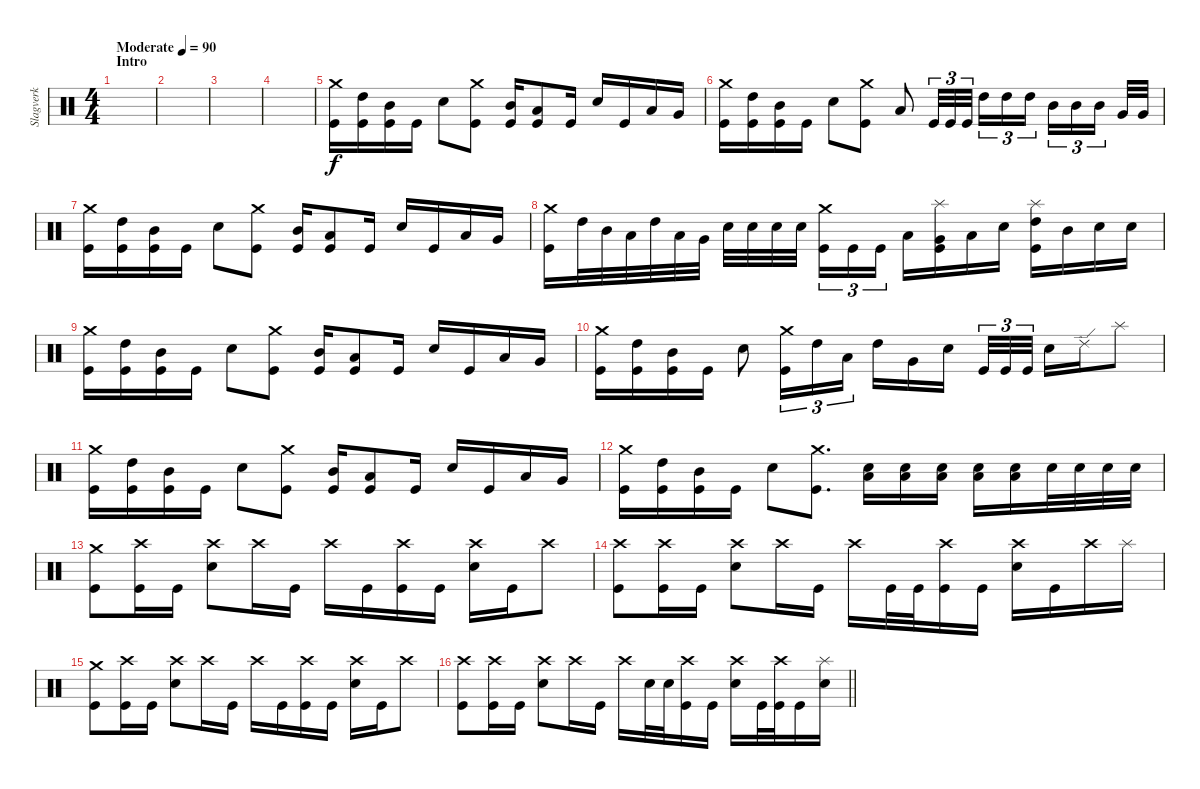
\track ("Slagverk" "Slagverk") {instrument percussion}
\staff {score}
\articulation defaults
\ts (4 4)
\section ("" "Intro")
\tempo (90 "Moderate")
\clef neutral
\ks c
|
|
|
|
("Crash medium (hit)" "Kick (hit)").16 ("High Tom (hit)" "Kick (hit)").16 ("Mid Tom (hit)" "Kick (hit)").16 "Kick (hit)".16 "Electric Snare (hit)".8 ("Crash medium (hit)" "Kick (hit)").8 ("Mid Tom (hit)" "Kick (hit)").16 ("Low Tom (hit)" "Kick (hit)").8 "Kick (hit)".16 "Electric Snare (hit)".16 "Kick (hit)".16 "Low Tom (hit)".16 "Very Low Tom (hit)".16 |
("Crash medium (hit)" "Kick (hit)").16 ("High Tom (hit)" "Kick (hit)").16 ("Mid Tom (hit)" "Kick (hit)").16 "Kick (hit)".16 "Electric Snare (hit)".8 ("Crash medium (hit)" "Kick (hit)").8 "Low Tom (hit)".8 "Kick (hit)".32{tu (3 2)} "Kick (hit)".32{tu (3 2)} "Kick (hit)".32{tu (3 2) beam splitsecondary} "High Tom (hit)".16{tu (3 2)} "High Tom (hit)".16{tu (3 2)} "High Tom (hit)".16{tu (3 2) beam splitsecondary} "Mid Tom (hit)".16{tu (3 2)} "Mid Tom (hit)".16{tu (3 2)} "Mid Tom (hit)".16{tu (3 2) beam splitsecondary} "Very Low Tom (hit)".32 "Very Low Tom (hit)".32 |
("Crash medium (hit)" "Kick (hit)").16 ("High Tom (hit)" "Kick (hit)").16 ("Mid Tom (hit)" "Kick (hit)").16 "Kick (hit)".16 "Electric Snare (hit)".8 ("Crash medium (hit)" "Kick (hit)").8 ("Mid Tom (hit)" "Kick (hit)").16 ("Low Tom (hit)" "Kick (hit)").8 "Kick (hit)".16 "Electric Snare (hit)".16 "Kick (hit)".16 "Low Tom (hit)".16 "Very Low Tom (hit)".16 |
("Crash medium (hit)" "Kick (hit)").16 "High Tom (hit)".32 "Mid Tom (hit)".32 "Low Tom (hit)".32 "High Tom (hit)".32 "Low Floor Tom (hit)".32 "Very Low Tom (hit)".32 "Electric Snare (hit)".32 "Electric Snare (hit)".32 "Electric Snare (hit)".32 "Electric Snare (hit)".32{beam splitsecondary} ("Crash medium (hit)" "Kick (hit)").16{tu (3 2)} "Kick (hit)".16{tu (3 2)} "Kick (hit)".16{tu (3 2)} "Low Tom (hit)".16 ("Splash (hit)" "Very Low Tom (hit)" "Kick (hit)").16 "Low Floor Tom (hit)".16 "Electric Snare (hit)".16 ("Splash (hit)" "High Tom (hit)" "Kick (hit)").16 "Mid Tom (hit)".16 "Electric Snare (hit)".16 "Electric Snare (hit)".16 |
("Crash medium (hit)" "Kick (hit)").16 ("High Tom (hit)" "Kick (hit)").16 ("Mid Tom (hit)" "Kick (hit)").16 "Kick (hit)".16 "Electric Snare (hit)".8 ("Crash medium (hit)" "Kick (hit)").8 ("Mid Tom (hit)" "Kick (hit)").16 ("Low Tom (hit)" "Kick (hit)").8 "Kick (hit)".16 "Electric Snare (hit)".16 "Kick (hit)".16 "Low Tom (hit)".16 "Very Low Tom (hit)".16 |
("Crash medium (hit)" "Kick (hit)").16 ("High Tom (hit)" "Kick (hit)").16 ("Mid Tom (hit)" "Kick (hit)").16 "Kick (hit)".16 "Electric Snare (hit)".8 ("Crash medium (hit)" "Kick (hit)").16{tu (3 2)} "High Tom (hit)".16{tu (3 2)} "Low Tom (hit)".16{tu (3 2)} "High Tom (hit)".16 "Very Low Tom (hit)".16 "Electric Snare (hit)".16{beam splitsecondary} "Kick (hit)".32{tu (3 2)} "Kick (hit)".32{tu (3 2)} "Kick (hit)".32{tu (3 2)} "Electric Snare (hit)".16 "Ride (edge) 2".16 "Splash (hit)".8 |
("Crash medium (hit)" "Kick (hit)").16 ("High Tom (hit)" "Kick (hit)").16 ("Mid Tom (hit)" "Kick (hit)").16 "Kick (hit)".16 "Electric Snare (hit)".8 ("Crash medium (hit)" "Kick (hit)").8 ("Mid Tom (hit)" "Kick (hit)").16 ("Low Tom (hit)" "Kick (hit)").8 "Kick (hit)".16 "Electric Snare (hit)".16 "Kick (hit)".16 "Low Tom (hit)".16 "Very Low Tom (hit)".16 |
("Crash medium (hit)" "Kick (hit)").16 ("High Tom (hit)" "Kick (hit)").16 ("Mid Tom (hit)" "Kick (hit)").16 "Kick (hit)".16 "Electric Snare (hit)".8 ("Crash medium (hit)" "Kick (hit)").8{d} ("Electric Snare (hit)" "Low Floor Tom (hit)").16 ("Electric Snare (hit)" "Low Floor Tom (hit)").16 ("Electric Snare (hit)" "Low Floor Tom (hit)").16 ("Electric Snare (hit)" "Low Floor Tom (hit)").16 ("Electric Snare (hit)" "Low Floor Tom (hit)").16 "Electric Snare (hit)".32 "Electric Snare (hit)".32 "Electric Snare (hit)".32 "Electric Snare (hit)".32 |
("Crash medium (hit)" "Kick (hit)").8 ("Crash high (hit)" "Kick (hit)").16 "Kick (hit)".16 ("Crash high (hit)" "Electric Snare (hit)").8 "Crash high (hit)".16 "Kick (hit)".16 "Crash high (hit)".16 "Kick (hit)".16 ("Crash high (hit)" "Kick (hit)").16 "Kick (hit)".16 ("Crash high (hit)" "Electric Snare (hit)").16 "Kick (hit)".16 "Crash high (hit)".8 |
("Crash high (hit)" "Kick (hit)").8 ("Crash high (hit)" "Kick (hit)").16 "Kick (hit)".16 ("Crash high (hit)" "Electric Snare (hit)").8 "Crash high (hit)".16 "Kick (hit)".16 "Crash high (hit)".16 "Kick (hit)".32 "Kick (hit)".32 ("Crash high (hit)" "Kick (hit)").16 "Kick (hit)".16 ("Crash high (hit)" "Electric Snare (hit)").16 "Kick (hit)".16 "Crash high (hit)".16 "Splash (hit)".16 |
("Crash medium (hit)" "Kick (hit)").8 ("Crash high (hit)" "Kick (hit)").16 "Kick (hit)".16 ("Crash high (hit)" "Electric Snare (hit)").8 "Crash high (hit)".16 "Kick (hit)".16 "Crash high (hit)".16 "Kick (hit)".16 ("Crash high (hit)" "Kick (hit)").16 "Kick (hit)".16 ("Crash high (hit)" "Electric Snare (hit)").16 "Kick (hit)".16 "Crash high (hit)".8 |
\barLineRight lightlight
("Crash high (hit)" "Kick (hit)").8 ("Crash high (hit)" "Kick (hit)").16 "Kick (hit)".16 ("Crash high (hit)" "Electric Snare (hit)").8 "Crash high (hit)".16 "Kick (hit)".16 "Crash high (hit)".16 "Electric Snare (hit)".32 "Electric Snare (hit)".32 ("Crash high (hit)" "Kick (hit)").16 "Kick (hit)".16 ("Crash high (hit)" "Electric Snare (hit)").16 "Kick (hit)".32 ("Crash high (hit)" "Kick (hit)").32 "Kick (hit)".16 ("Splash (hit)" "Electric Snare (hit)").16
